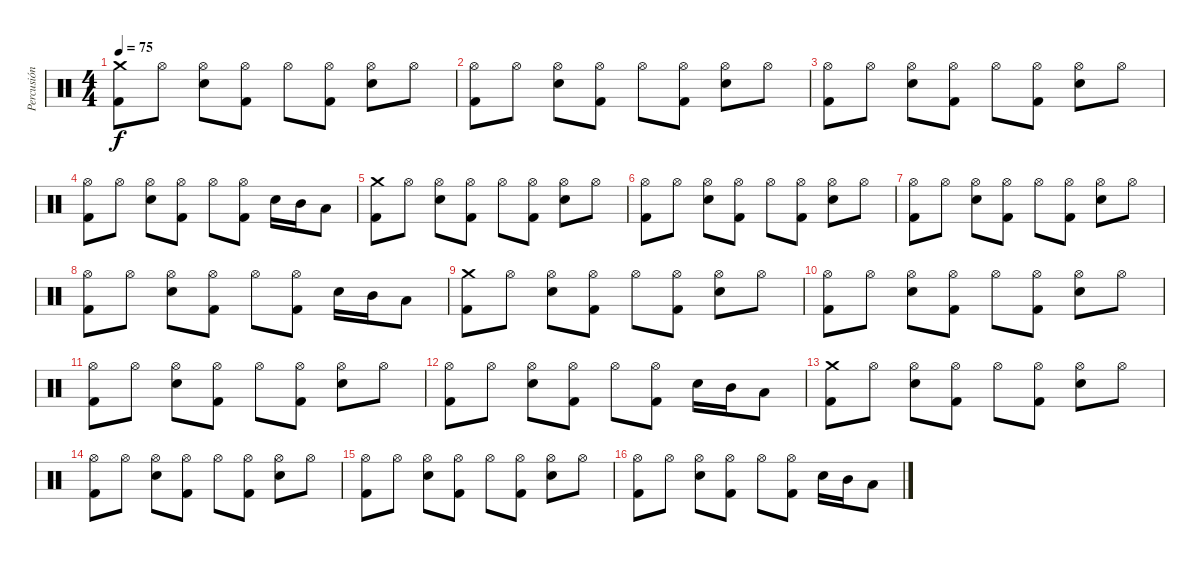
\track ("Percusión" "Percusión") {instrument percussion}
\staff {score}
\articulation defaults
\ts (4 4)
\tempo 75
\clef neutral
\ks c
("Crash medium (hit)" "Kick (hit) 2").8{dy f} "Hi-Hat (open)".8 ("Hi-Hat (open)" "Electric Snare (hit)").8 ("Hi-Hat (open)" "Kick (hit) 2").8 "Hi-Hat (open)".8 ("Hi-Hat (open)" "Kick (hit) 2").8 ("Hi-Hat (open)" "Electric Snare (hit)").8 "Hi-Hat (open)".8 |
("Hi-Hat (open)" "Kick (hit) 2").8 "Hi-Hat (open)".8 ("Hi-Hat (open)" "Electric Snare (hit)").8 ("Hi-Hat (open)" "Kick (hit) 2").8 "Hi-Hat (open)".8 ("Hi-Hat (open)" "Kick (hit) 2").8 ("Hi-Hat (open)" "Electric Snare (hit)").8 "Hi-Hat (open)".8 |
("Hi-Hat (open)" "Kick (hit) 2").8 "Hi-Hat (open)".8 ("Hi-Hat (open)" "Electric Snare (hit)").8 ("Hi-Hat (open)" "Kick (hit) 2").8 "Hi-Hat (open)".8 ("Hi-Hat (open)" "Kick (hit) 2").8 ("Hi-Hat (open)" "Electric Snare (hit)").8 "Hi-Hat (open)".8 |
("Hi-Hat (open)" "Kick (hit) 2").8 "Hi-Hat (open)".8 ("Hi-Hat (open)" "Electric Snare (hit)").8 ("Hi-Hat (open)" "Kick (hit) 2").8 "Hi-Hat (open)".8 ("Hi-Hat (open)" "Kick (hit) 2").8 "Electric Snare (hit)".16 "Mid Tom (hit)".16 "Low Tom (hit)".8 |
("Crash medium (hit)" "Kick (hit) 2").8 "Hi-Hat (open)".8 ("Hi-Hat (open)" "Electric Snare (hit)").8 ("Hi-Hat (open)" "Kick (hit) 2").8 "Hi-Hat (open)".8 ("Hi-Hat (open)" "Kick (hit) 2").8 ("Hi-Hat (open)" "Electric Snare (hit)").8 "Hi-Hat (open)".8 |
("Hi-Hat (open)" "Kick (hit) 2").8 "Hi-Hat (open)".8 ("Hi-Hat (open)" "Electric Snare (hit)").8 ("Hi-Hat (open)" "Kick (hit) 2").8 "Hi-Hat (open)".8 ("Hi-Hat (open)" "Kick (hit) 2").8 ("Hi-Hat (open)" "Electric Snare (hit)").8 "Hi-Hat (open)".8 |
("Hi-Hat (open)" "Kick (hit) 2").8 "Hi-Hat (open)".8 ("Hi-Hat (open)" "Electric Snare (hit)").8 ("Hi-Hat (open)" "Kick (hit) 2").8 "Hi-Hat (open)".8 ("Hi-Hat (open)" "Kick (hit) 2").8 ("Hi-Hat (open)" "Electric Snare (hit)").8 "Hi-Hat (open)".8 |
("Hi-Hat (open)" "Kick (hit) 2").8 "Hi-Hat (open)".8 ("Hi-Hat (open)" "Electric Snare (hit)").8 ("Hi-Hat (open)" "Kick (hit) 2").8 "Hi-Hat (open)".8 ("Hi-Hat (open)" "Kick (hit) 2").8 "Electric Snare (hit)".16 "Mid Tom (hit)".16 "Low Tom (hit)".8 |
("Crash medium (hit)" "Kick (hit) 2").8 "Hi-Hat (open)".8 ("Hi-Hat (open)" "Electric Snare (hit)").8 ("Hi-Hat (open)" "Kick (hit) 2").8 "Hi-Hat (open)".8 ("Hi-Hat (open)" "Kick (hit) 2").8 ("Hi-Hat (open)" "Electric Snare (hit)").8 "Hi-Hat (open)".8 |
("Hi-Hat (open)" "Kick (hit) 2").8 "Hi-Hat (open)".8 ("Hi-Hat (open)" "Electric Snare (hit)").8 ("Hi-Hat (open)" "Kick (hit) 2").8 "Hi-Hat (open)".8 ("Hi-Hat (open)" "Kick (hit) 2").8 ("Hi-Hat (open)" "Electric Snare (hit)").8 "Hi-Hat (open)".8 |
("Hi-Hat (open)" "Kick (hit) 2").8 "Hi-Hat (open)".8 ("Hi-Hat (open)" "Electric Snare (hit)").8 ("Hi-Hat (open)" "Kick (hit) 2").8 "Hi-Hat (open)".8 ("Hi-Hat (open)" "Kick (hit) 2").8 ("Hi-Hat (open)" "Electric Snare (hit)").8 "Hi-Hat (open)".8 |
("Hi-Hat (open)" "Kick (hit) 2").8 "Hi-Hat (open)".8 ("Hi-Hat (open)" "Electric Snare (hit)").8 ("Hi-Hat (open)" "Kick (hit) 2").8 "Hi-Hat (open)".8 ("Hi-Hat (open)" "Kick (hit) 2").8 "Electric Snare (hit)".16 "Mid Tom (hit)".16 "Low Tom (hit)".8 |
("Crash medium (hit)" "Kick (hit) 2").8 "Hi-Hat (open)".8 ("Hi-Hat (open)" "Electric Snare (hit)").8 ("Hi-Hat (open)" "Kick (hit) 2").8 "Hi-Hat (open)".8 ("Hi-Hat (open)" "Kick (hit) 2").8 ("Hi-Hat (open)" "Electric Snare (hit)").8 "Hi-Hat (open)".8 |
("Hi-Hat (open)" "Kick (hit) 2").8 "Hi-Hat (open)".8 ("Hi-Hat (open)" "Electric Snare (hit)").8 ("Hi-Hat (open)" "Kick (hit) 2").8 "Hi-Hat (open)".8 ("Hi-Hat (open)" "Kick (hit) 2").8 ("Hi-Hat (open)" "Electric Snare (hit)").8 "Hi-Hat (open)".8 |
("Hi-Hat (open)" "Kick (hit) 2").8 "Hi-Hat (open)".8 ("Hi-Hat (open)" "Electric Snare (hit)").8 ("Hi-Hat (open)" "Kick (hit) 2").8 "Hi-Hat (open)".8 ("Hi-Hat (open)" "Kick (hit) 2").8 ("Hi-Hat (open)" "Electric Snare (hit)").8 "Hi-Hat (open)".8 |
("Hi-Hat (open)" "Kick (hit) 2").8 "Hi-Hat (open)".8 ("Hi-Hat (open)" "Electric Snare (hit)").8 ("Hi-Hat (open)" "Kick (hit) 2").8 "Hi-Hat (open)".8 ("Hi-Hat (open)" "Kick (hit) 2").8 "Electric Snare (hit)".16 "Mid Tom (hit)".16 "Low Tom (hit)".8
